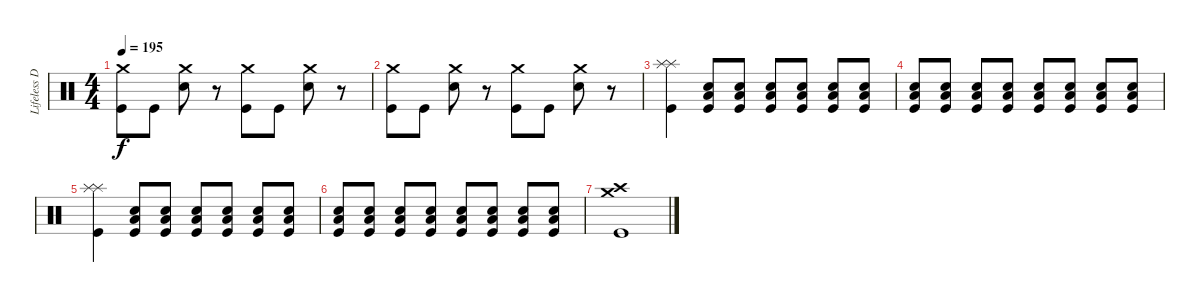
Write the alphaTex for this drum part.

\track ("Lifeless Drums" "Lifeless D") {instrument percussion}
\staff {score}
\articulation defaults
\ts (4 4)
\tempo 195
\clef neutral
\ks c
("Crash medium (hit)" "Kick (hit)").8{dy f} "Kick (hit)".8 ("Crash medium (hit)" "Electric Snare (hit)").8 r.8 ("Crash medium (hit)" "Kick (hit)").8 "Kick (hit)".8 ("Crash medium (hit)" "Electric Snare (hit)").8 r.8 |
("Crash medium (hit)" "Kick (hit)").8 "Kick (hit)".8 ("Crash medium (hit)" "Electric Snare (hit)").8 r.8 ("Crash medium (hit)" "Kick (hit)").8 "Kick (hit)".8 ("Crash medium (hit)" "Electric Snare (hit)").8 r.8 |
("Splash (hit)" "Splash (hit)" "Kick (hit)").4 ("Low Tom (hit)" "Electric Snare (hit)" "Kick (hit)").8 ("Low Tom (hit)" "Electric Snare (hit)" "Kick (hit)").8 ("Low Tom (hit)" "Electric Snare (hit)" "Kick (hit)").8 ("Low Tom (hit)" "Electric Snare (hit)" "Kick (hit)").8 ("Low Tom (hit)" "Electric Snare (hit)" "Kick (hit)").8 ("Low Tom (hit)" "Electric Snare (hit)" "Kick (hit)").8 |
("Low Tom (hit)" "Electric Snare (hit)" "Kick (hit)").8 ("Low Tom (hit)" "Electric Snare (hit)" "Kick (hit)").8 ("Low Tom (hit)" "Electric Snare (hit)" "Kick (hit)").8 ("Low Tom (hit)" "Electric Snare (hit)" "Kick (hit)").8 ("Low Tom (hit)" "Electric Snare (hit)" "Kick (hit)").8 ("Low Tom (hit)" "Electric Snare (hit)" "Kick (hit)").8 ("Low Tom (hit)" "Electric Snare (hit)" "Kick (hit)").8 ("Low Tom (hit)" "Electric Snare (hit)" "Kick (hit)").8 |
("Splash (hit)" "Splash (hit)" "Kick (hit)").4 ("Low Tom (hit)" "Electric Snare (hit)" "Kick (hit)").8 ("Low Tom (hit)" "Electric Snare (hit)" "Kick (hit)").8 ("Low Tom (hit)" "Electric Snare (hit)" "Kick (hit)").8 ("Low Tom (hit)" "Electric Snare (hit)" "Kick (hit)").8 ("Low Tom (hit)" "Electric Snare (hit)" "Kick (hit)").8 ("Low Tom (hit)" "Electric Snare (hit)" "Kick (hit)").8 |
("Low Tom (hit)" "Electric Snare (hit)" "Kick (hit)").8 ("Low Tom (hit)" "Electric Snare (hit)" "Kick (hit)").8 ("Low Tom (hit)" "Electric Snare (hit)" "Kick (hit)").8 ("Low Tom (hit)" "Electric Snare (hit)" "Kick (hit)").8 ("Low Tom (hit)" "Electric Snare (hit)" "Kick (hit)").8 ("Low Tom (hit)" "Electric Snare (hit)" "Kick (hit)").8 ("Low Tom (hit)" "Electric Snare (hit)" "Kick (hit)").8 ("Low Tom (hit)" "Electric Snare (hit)" "Kick (hit)").8 |
("Crash high (hit)" "Crash medium (hit)" "Kick (hit)").1
